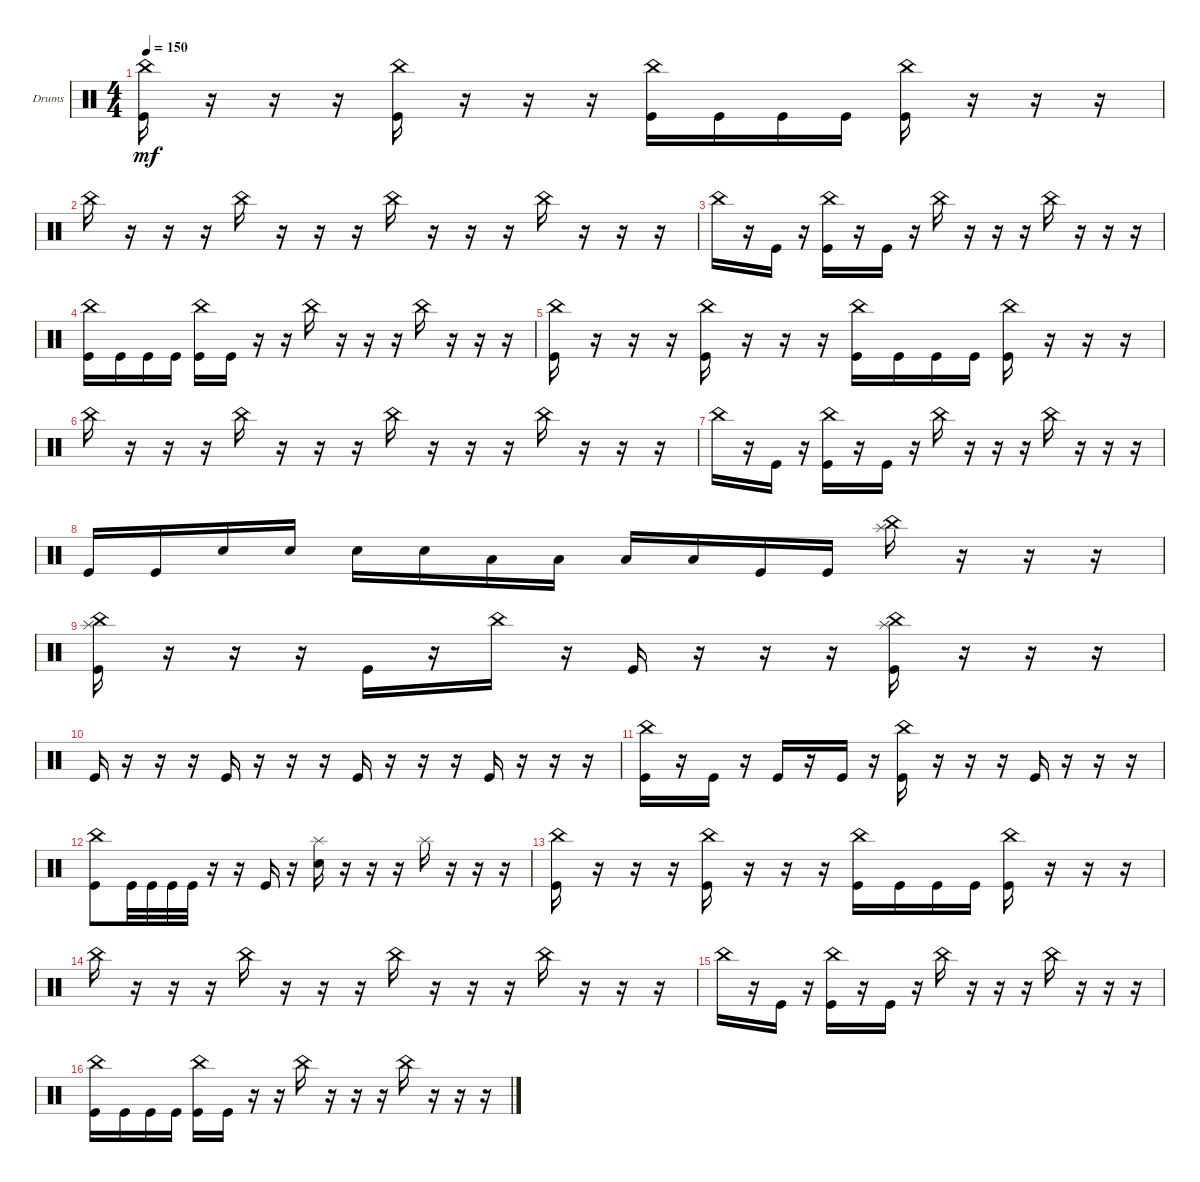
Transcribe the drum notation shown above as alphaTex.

\defaultSystemsLayout 4
\bracketExtendMode groupsimilarinstruments
\firstSystemTrackNameOrientation horizontal
\otherSystemsTrackNameOrientation horizontal
\track ("Drumkit" "Drums") {instrument percussion}
\staff {score}
\articulation defaults
\ts (4 4)
\tempo 150
\clef neutral
\scale
0.474178
\ks c
("Kick (hit)" "China (hit)").16{dy mf} r.16 r.16 r.16 ("Kick (hit)" "China (hit)").16 r.16 r.16 r.16 ("Kick (hit)" "China (hit)").16 "Kick (hit)".16 "Kick (hit)".16 "Kick (hit)".16 ("Kick (hit)" "China (hit)").16 r.16 r.16 r.16 |
\scale
0.262911 "China (hit)".16 r.16 r.16 r.16 "China (hit)".16 r.16 r.16 r.16 "China (hit)".16 r.16 r.16 r.16 "China (hit)".16 r.16 r.16 r.16 |
\scale
0.262911 "China (hit)".16 r.16 "Kick (hit)".16 r.16 ("China (hit)" "Kick (hit)").16 r.16 "Kick (hit)".16 r.16 "China (hit)".16 r.16 r.16 r.16 "China (hit)".16 r.16 r.16 r.16 |
\scale
0.333333 ("China (hit)" "Kick (hit)").16 "Kick (hit)".16 "Kick (hit)".16 "Kick (hit)".16 ("China (hit)" "Kick (hit)").16 "Kick (hit)".16 r.16 r.16 "China (hit)".16 r.16 r.16 r.16 "China (hit)".16 r.16 r.16 r.16 |
\scale
0.333333 ("Kick (hit)" "China (hit)").16 r.16 r.16 r.16 ("Kick (hit)" "China (hit)").16 r.16 r.16 r.16 ("Kick (hit)" "China (hit)").16 "Kick (hit)".16 "Kick (hit)".16 "Kick (hit)".16 ("Kick (hit)" "China (hit)").16 r.16 r.16 r.16 |
\scale
0.333333 "China (hit)".16 r.16 r.16 r.16 "China (hit)".16 r.16 r.16 r.16 "China (hit)".16 r.16 r.16 r.16 "China (hit)".16 r.16 r.16 r.16 |
\scale
0.333333 "China (hit)".16 r.16 "Kick (hit)".16 r.16 ("China (hit)" "Kick (hit)").16 r.16 "Kick (hit)".16 r.16 "China (hit)".16 r.16 r.16 r.16 "China (hit)".16 r.16 r.16 r.16 |
\scale
0.333333 "Kick (hit)".16 "Kick (hit)".16 "Snare (hit) 2".16 "Snare (hit) 2".16 "Snare (hit) 2".16 "Snare (hit) 2".16 "Low Tom (hit)".16 "Low Tom (hit)".16 "Low Tom (hit)".16 "Low Tom (hit)".16 "Kick (hit)".16 "Kick (hit)".16 ("Splash (hit)" "China (hit)").16 r.16 r.16 r.16 |
\scale
0.333333 ("China (hit)" "Splash (hit)" "Kick (hit)").16 r.16 r.16 r.16 "Kick (hit)".16 r.16 "China (hit)".16 r.16 "Kick (hit)".16 r.16 r.16 r.16 ("Kick (hit)" "China (hit)" "Splash (hit)").16 r.16 r.16 r.16 |
\scale
0.333333 "Kick (hit)".16 r.16 r.16 r.16 "Kick (hit)".16 r.16 r.16 r.16 "Kick (hit)".16 r.16 r.16 r.16 "Kick (hit)".16 r.16 r.16 r.16 |
\scale
0.333333 ("Kick (hit)" "China (hit)").16 r.16 "Kick (hit)".16 r.16 "Kick (hit)".16 r.16 "Kick (hit)".16 r.16 ("Kick (hit)" "China (hit)").16 r.16 r.16 r.16 "Kick (hit)".16 r.16 r.16 r.16 |
\scale
0.333333 ("Kick (hit)" "China (hit)").8 "Kick (hit)".32 "Kick (hit)".32 "Kick (hit)".32 "Kick (hit)".32 r.16 r.16 "Kick (hit)".16 r.16 ("Snare (hit) 2" "Splash (hit)").16 r.16 r.16 r.16 "Splash (hit)".16 r.16 r.16 r.16 |
\scale
0.333333 ("Kick (hit)" "China (hit)").16 r.16 r.16 r.16 ("Kick (hit)" "China (hit)").16 r.16 r.16 r.16 ("Kick (hit)" "China (hit)").16 "Kick (hit)".16 "Kick (hit)".16 "Kick (hit)".16 ("Kick (hit)" "China (hit)").16 r.16 r.16 r.16 |
\scale
0.333333 "China (hit)".16 r.16 r.16 r.16 "China (hit)".16 r.16 r.16 r.16 "China (hit)".16 r.16 r.16 r.16 "China (hit)".16 r.16 r.16 r.16 |
\scale
0.333333 "China (hit)".16 r.16 "Kick (hit)".16 r.16 ("China (hit)" "Kick (hit)").16 r.16 "Kick (hit)".16 r.16 "China (hit)".16 r.16 r.16 r.16 "China (hit)".16 r.16 r.16 r.16 |
("China (hit)" "Kick (hit)").16 "Kick (hit)".16 "Kick (hit)".16 "Kick (hit)".16 ("China (hit)" "Kick (hit)").16 "Kick (hit)".16 r.16 r.16 "China (hit)".16 r.16 r.16 r.16 "China (hit)".16 r.16 r.16 r.16
